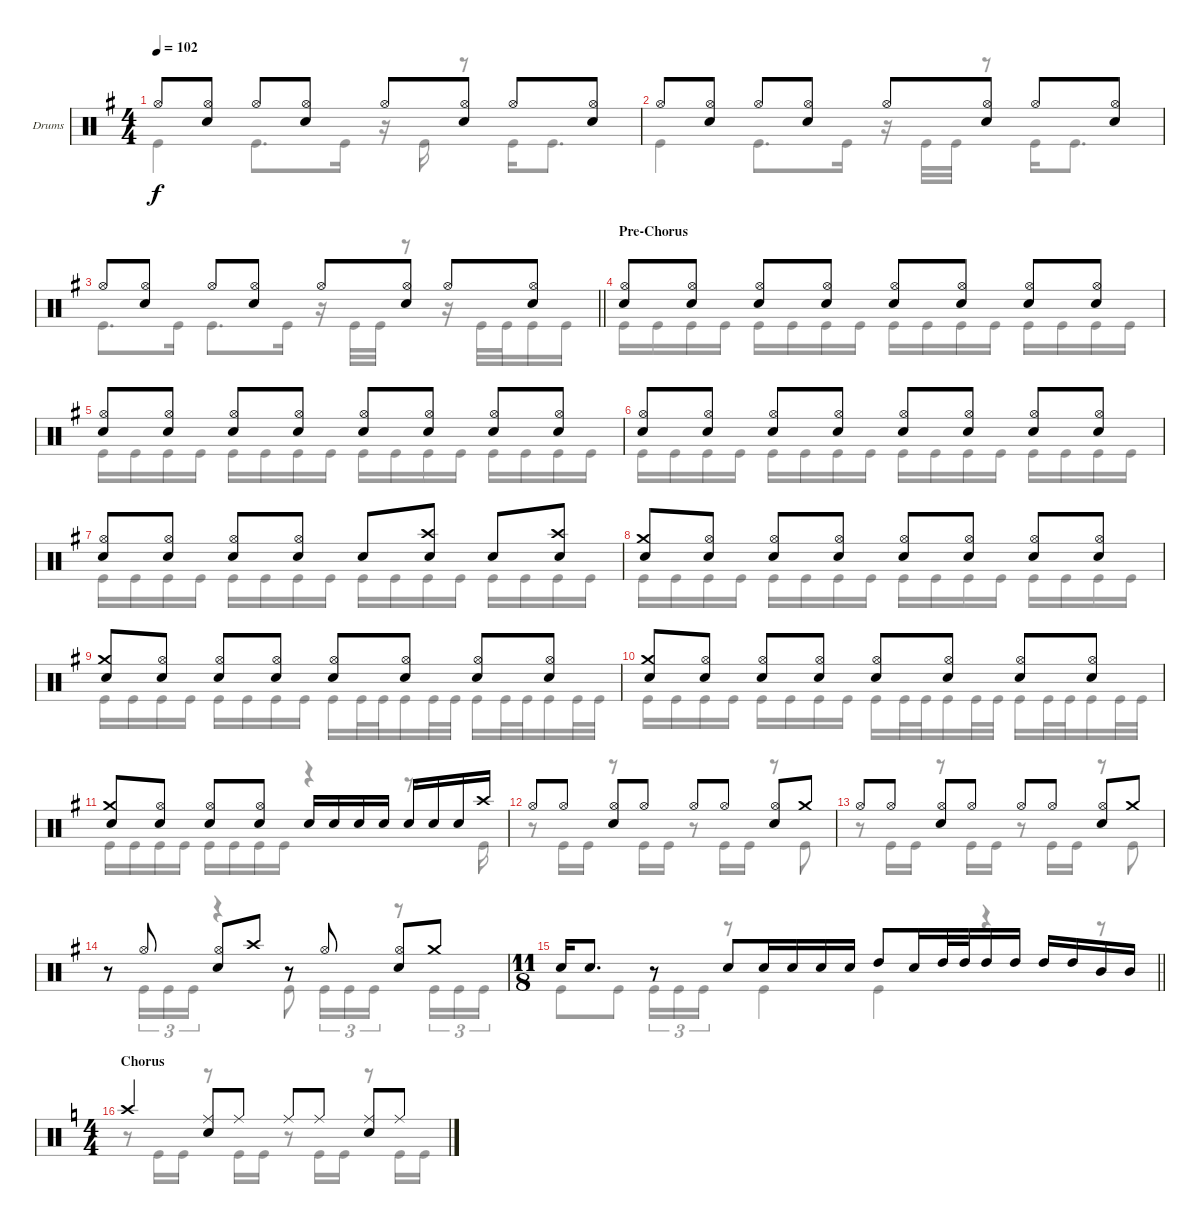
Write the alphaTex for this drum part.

\bracketExtendMode groupsimilarinstruments
\firstSystemTrackNameOrientation horizontal
\otherSystemsTrackNameOrientation horizontal
\track ("Drumkit" "Drums") {instrument percussion}
\staff {score}
\articulation defaults
\voice
\ts (4 4)
\tempo 102
\clef neutral
\ks g "Hi-Hat (open)".8{dy f}
("Hi-Hat (open)" "Snare (hit) 2").8 "Hi-Hat (open)".8 ("Hi-Hat (open)" "Snare (hit) 2").8 "Hi-Hat (open)".8 ("Hi-Hat (open)" "Snare (hit) 2").8 "Hi-Hat (open)".8 ("Hi-Hat (open)" "Snare (hit) 2").8 |
"Hi-Hat (open)".8 ("Hi-Hat (open)" "Snare (hit) 2").8 "Hi-Hat (open)".8 ("Hi-Hat (open)" "Snare (hit) 2").8 "Hi-Hat (open)".8 ("Hi-Hat (open)" "Snare (hit) 2").8 "Hi-Hat (open)".8 ("Hi-Hat (open)" "Snare (hit) 2").8 |
\barLineRight lightlight "Hi-Hat (open)".8
("Hi-Hat (open)" "Snare (hit) 2").8 "Hi-Hat (open)".8 ("Hi-Hat (open)" "Snare (hit) 2").8 "Hi-Hat (open)".8 ("Hi-Hat (open)" "Snare (hit) 2").8 "Hi-Hat (open)".8 ("Hi-Hat (open)" "Snare (hit) 2").8 |
\section ("" "Pre-Chorus")
("Hi-Hat (open)" "Snare (hit) 2").8 ("Hi-Hat (open)" "Snare (hit) 2").8 ("Hi-Hat (open)" "Snare (hit) 2").8 ("Hi-Hat (open)" "Snare (hit) 2").8 ("Hi-Hat (open)" "Snare (hit) 2").8 ("Hi-Hat (open)" "Snare (hit) 2").8 ("Hi-Hat (open)" "Snare (hit) 2").8 ("Hi-Hat (open)" "Snare (hit) 2").8 |
("Hi-Hat (open)" "Snare (hit) 2").8 ("Hi-Hat (open)" "Snare (hit) 2").8 ("Hi-Hat (open)" "Snare (hit) 2").8 ("Hi-Hat (open)" "Snare (hit) 2").8 ("Hi-Hat (open)" "Snare (hit) 2").8 ("Hi-Hat (open)" "Snare (hit) 2").8 ("Hi-Hat (open)" "Snare (hit) 2").8 ("Hi-Hat (open)" "Snare (hit) 2").8 |
("Hi-Hat (open)" "Snare (hit) 2").8 ("Hi-Hat (open)" "Snare (hit) 2").8 ("Hi-Hat (open)" "Snare (hit) 2").8 ("Hi-Hat (open)" "Snare (hit) 2").8 ("Hi-Hat (open)" "Snare (hit) 2").8 ("Hi-Hat (open)" "Snare (hit) 2").8 ("Hi-Hat (open)" "Snare (hit) 2").8 ("Hi-Hat (open)" "Snare (hit) 2").8 |
("Hi-Hat (open)" "Snare (hit) 2").8 ("Hi-Hat (open)" "Snare (hit) 2").8 ("Hi-Hat (open)" "Snare (hit) 2").8 ("Hi-Hat (open)" "Snare (hit) 2").8 "Snare (hit) 2".8 ("Crash high (hit)" "Snare (hit) 2").8 "Snare (hit) 2".8 ("Crash high (hit)" "Snare (hit) 2").8 |
("Crash medium (hit)" "Snare (hit) 2").8 ("Hi-Hat (open)" "Snare (hit) 2").8 ("Hi-Hat (open)" "Snare (hit) 2").8 ("Hi-Hat (open)" "Snare (hit) 2").8 ("Hi-Hat (open)" "Snare (hit) 2").8 ("Hi-Hat (open)" "Snare (hit) 2").8 ("Hi-Hat (open)" "Snare (hit) 2").8 ("Hi-Hat (open)" "Snare (hit) 2").8 |
("Crash medium (hit)" "Snare (hit) 2").8 ("Hi-Hat (open)" "Snare (hit) 2").8 ("Hi-Hat (open)" "Snare (hit) 2").8 ("Hi-Hat (open)" "Snare (hit) 2").8 ("Hi-Hat (open)" "Snare (hit) 2").8 ("Hi-Hat (open)" "Snare (hit) 2").8 ("Hi-Hat (open)" "Snare (hit) 2").8 ("Hi-Hat (open)" "Snare (hit) 2").8 |
("Crash medium (hit)" "Snare (hit) 2").8 ("Hi-Hat (open)" "Snare (hit) 2").8 ("Hi-Hat (open)" "Snare (hit) 2").8 ("Hi-Hat (open)" "Snare (hit) 2").8 ("Hi-Hat (open)" "Snare (hit) 2").8 ("Hi-Hat (open)" "Snare (hit) 2").8 ("Hi-Hat (open)" "Snare (hit) 2").8 ("Hi-Hat (open)" "Snare (hit) 2").8 |
("Crash medium (hit)" "Snare (hit) 2").8 ("Hi-Hat (open)" "Snare (hit) 2").8 ("Hi-Hat (open)" "Snare (hit) 2").8 ("Hi-Hat (open)" "Snare (hit) 2").8 "Snare (hit) 2".16 "Snare (hit) 2".16 "Snare (hit) 2".16 "Snare (hit) 2".16 "Snare (hit) 2".16 "Snare (hit) 2".16 "Snare (hit) 2".16 "Crash high (hit)".16 |
"Hi-Hat (open)".8 "Hi-Hat (open)".8 ("Hi-Hat (open)" "Snare (hit) 2").8 "Hi-Hat (open)".8 "Hi-Hat (open)".8 "Hi-Hat (open)".8 ("Hi-Hat (open)" "Snare (hit) 2").8 "Crash medium (hit)".8 |
"Hi-Hat (open)".8 "Hi-Hat (open)".8 ("Hi-Hat (open)" "Snare (hit) 2").8 "Hi-Hat (open)".8 "Hi-Hat (open)".8 "Hi-Hat (open)".8 ("Hi-Hat (open)" "Snare (hit) 2").8 "Crash medium (hit)".8 |
r.8 "Hi-Hat (open)".8 ("Hi-Hat (open)" "Snare (hit) 2").8 "Crash high (hit)".8 r.8 "Hi-Hat (open)".8 ("Hi-Hat (open)" "Snare (hit) 2").8 "Crash medium (hit)".8 |
\ts (11 8)
\beaming (8 3 3 3 2)
\barLineRight lightlight "Snare (hit) 2".16 "Snare (hit) 2".8{d}
r.8 "Snare (hit) 2".8 "Snare (hit) 2".16 "Snare (hit) 2".16 "Snare (hit) 2".16 "Snare (hit) 2".16 "High Tom (hit)".8 "Snare (hit) 2".16 "High Tom (hit)".32 "High Tom (hit)".32 "High Tom (hit)".16 "High Tom (hit)".16 "High Tom (hit)".16 "High Tom (hit)".16 "Mid Tom (hit)".16 "Mid Tom (hit)".16 |
\ts (4 4)
\beaming (8 2 2 2 2)
\section ("" "Chorus")
\ks c "Crash high (hit)".4
("Ride (middle)" "Snare (hit) 2").8 "Ride (middle)".8 "Ride (middle)".8 "Ride (middle)".8 ("Ride (middle)" "Snare (hit) 2").8 "Ride (middle)".8
\voice
\clef neutral
\ottava regular
\simile none
\ks g "Kick (hit)".4{dy f} "Kick (hit)".8{d} "Kick (hit)".16
r.16 "Kick (hit)".16 r.8 "Kick (hit)".16 "Kick (hit)".8{d} |
"Kick (hit)".4 "Kick (hit)".8{d} "Kick (hit)".16 r.16 "Kick (hit)".32 "Kick (hit)".32 r.8 "Kick (hit)".16 "Kick (hit)".8{d} |
\barLineRight lightlight "Kick (hit)".8{d} "Kick (hit)".16 "Kick (hit)".8{d} "Kick (hit)".16
r.16 "Kick (hit)".32 "Kick (hit)".32 r.8 r.16 "Kick (hit)".32 "Kick (hit)".32 "Kick (hit)".16 "Kick (hit)".16 |
"Kick (hit)".16 "Kick (hit)".16 "Kick (hit)".16 "Kick (hit)".16 "Kick (hit)".16 "Kick (hit)".16 "Kick (hit)".16 "Kick (hit)".16 "Kick (hit)".16 "Kick (hit)".16 "Kick (hit)".16 "Kick (hit)".16 "Kick (hit)".16 "Kick (hit)".16 "Kick (hit)".16 "Kick (hit)".16 |
"Kick (hit)".16 "Kick (hit)".16 "Kick (hit)".16 "Kick (hit)".16 "Kick (hit)".16 "Kick (hit)".16 "Kick (hit)".16 "Kick (hit)".16 "Kick (hit)".16 "Kick (hit)".16 "Kick (hit)".16 "Kick (hit)".16 "Kick (hit)".16 "Kick (hit)".16 "Kick (hit)".16 "Kick (hit)".16 |
"Kick (hit)".16 "Kick (hit)".16 "Kick (hit)".16 "Kick (hit)".16 "Kick (hit)".16 "Kick (hit)".16 "Kick (hit)".16 "Kick (hit)".16 "Kick (hit)".16 "Kick (hit)".16 "Kick (hit)".16 "Kick (hit)".16 "Kick (hit)".16 "Kick (hit)".16 "Kick (hit)".16 "Kick (hit)".16 |
"Kick (hit)".16 "Kick (hit)".16 "Kick (hit)".16 "Kick (hit)".16 "Kick (hit)".16 "Kick (hit)".16 "Kick (hit)".16 "Kick (hit)".16 "Kick (hit)".16 "Kick (hit)".16 "Kick (hit)".16 "Kick (hit)".16 "Kick (hit)".16 "Kick (hit)".16 "Kick (hit)".16 "Kick (hit)".16 |
"Kick (hit)".16 "Kick (hit)".16 "Kick (hit)".16 "Kick (hit)".16 "Kick (hit)".16 "Kick (hit)".16 "Kick (hit)".16 "Kick (hit)".16 "Kick (hit)".16 "Kick (hit)".16 "Kick (hit)".16 "Kick (hit)".16 "Kick (hit)".16 "Kick (hit)".16 "Kick (hit)".16 "Kick (hit)".16 |
"Kick (hit)".16 "Kick (hit)".16 "Kick (hit)".16 "Kick (hit)".16 "Kick (hit)".16 "Kick (hit)".16 "Kick (hit)".16 "Kick (hit)".16 "Kick (hit)".16 "Kick (hit)".32 "Kick (hit)".32 "Kick (hit)".16 "Kick (hit)".32 "Kick (hit)".32 "Kick (hit)".16 "Kick (hit)".32 "Kick (hit)".32 "Kick (hit)".16 "Kick (hit)".32 "Kick (hit)".32 |
"Kick (hit)".16 "Kick (hit)".16 "Kick (hit)".16 "Kick (hit)".16 "Kick (hit)".16 "Kick (hit)".16 "Kick (hit)".16 "Kick (hit)".16 "Kick (hit)".16 "Kick (hit)".32 "Kick (hit)".32 "Kick (hit)".16 "Kick (hit)".32 "Kick (hit)".32 "Kick (hit)".16 "Kick (hit)".32 "Kick (hit)".32 "Kick (hit)".16 "Kick (hit)".32 "Kick (hit)".32 |
"Kick (hit)".16 "Kick (hit)".16 "Kick (hit)".16 "Kick (hit)".16 "Kick (hit)".16 "Kick (hit)".16 "Kick (hit)".16 "Kick (hit)".16 r.4 r.8{d} "Kick (hit)".16 |
r.8 "Kick (hit)".16 "Kick (hit)".16 r.8 "Kick (hit)".16 "Kick (hit)".16 r.8 "Kick (hit)".16 "Kick (hit)".16 r.8 "Kick (hit)".8 |
r.8 "Kick (hit)".16 "Kick (hit)".16 r.8 "Kick (hit)".16 "Kick (hit)".16 r.8 "Kick (hit)".16 "Kick (hit)".16 r.8 "Kick (hit)".8 |
r.8 "Kick (hit)".16{tu (3 2)} "Kick (hit)".16{tu (3 2)} "Kick (hit)".16{tu (3 2)} r.4 "Kick (hit)".8 "Kick (hit)".16{tu (3 2)} "Kick (hit)".16{tu (3 2)} "Kick (hit)".16{tu (3 2)} r.8 "Kick (hit)".16{tu (3 2)} "Kick (hit)".16{tu (3 2)} "Kick (hit)".16{tu (3 2)} |
\barLineRight lightlight "Kick (hit)".8 "Kick (hit)".8 "Kick (hit)".16{tu (3 2)} "Kick (hit)".16{tu (3 2)} "Kick (hit)".16{tu (3 2)}
r.8 "Kick (hit)".4 "Kick (hit)".4 r.4 r.8 |
\ks c
r.8 "Kick (hit)".16 "Kick (hit)".16 r.8 "Kick (hit)".16 "Kick (hit)".16 r.8 "Kick (hit)".16 "Kick (hit)".16 r.8 "Kick (hit)".16 "Kick (hit)".16
